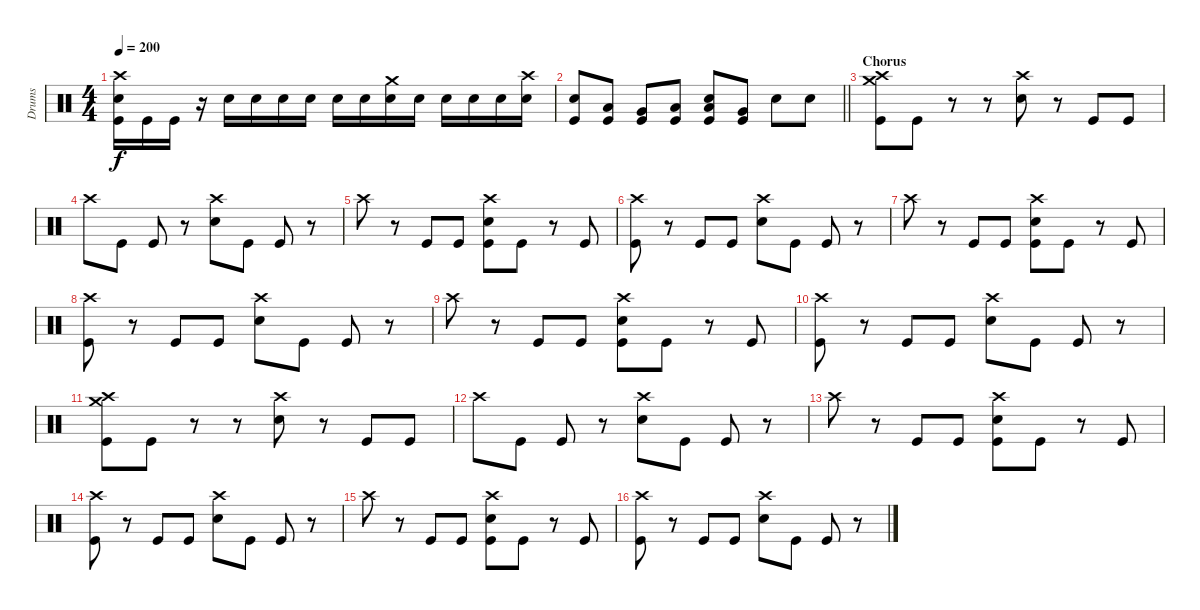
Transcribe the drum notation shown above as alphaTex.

\track ("Drums" "Drums") {instrument percussion}
\staff {score}
\articulation defaults
\ts (4 4)
\tempo 200
\clef neutral
\ks c
("Crash high (hit)" "Electric Snare (hit)" "Kick (hit)").16{dy f} "Kick (hit)".16 "Kick (hit)".16 r.16 "Electric Snare (hit)".16 "Electric Snare (hit)".16 "Electric Snare (hit)".16 "Electric Snare (hit)".16 "Electric Snare (hit)".16 "Electric Snare (hit)".16 ("Crash medium (hit)" "Electric Snare (hit)").16 "Electric Snare (hit)".16 "Electric Snare (hit)".16 "Electric Snare (hit)".16 "Electric Snare (hit)".16 ("Crash high (hit)" "Electric Snare (hit)").16 |
\barLineRight lightlight
("Electric Snare (hit)" "Kick (hit)").8 ("Low Tom (hit)" "Kick (hit)").8 ("Very Low Tom (hit)" "Kick (hit)").8 ("Low Floor Tom (hit)" "Kick (hit)").8 ("Low Tom (hit)" "Electric Snare (hit)" "Kick (hit)").8 ("Very Low Tom (hit)" "Kick (hit)").8 "Electric Snare (hit)".8 "Electric Snare (hit)".8 |
\section ("" "Chorus")
("Crash high (hit)" "Crash medium (hit)" "Kick (hit)").8 "Kick (hit)".8 r.8 r.8 ("Crash high (hit)" "Electric Snare (hit)").8 r.8 "Kick (hit)".8 "Kick (hit)".8 |
"Crash high (hit)".8 "Kick (hit)".8 "Kick (hit)".8 r.8 ("Crash high (hit)" "Electric Snare (hit)").8 "Kick (hit)".8 "Kick (hit)".8 r.8 |
"Crash high (hit)".8 r.8 "Kick (hit)".8 "Kick (hit)".8 ("Crash high (hit)" "Electric Snare (hit)" "Kick (hit)").8 "Kick (hit)".8 r.8 "Kick (hit)".8 |
("Crash high (hit)" "Kick (hit)").8 r.8 "Kick (hit)".8 "Kick (hit)".8 ("Crash high (hit)" "Electric Snare (hit)").8 "Kick (hit)".8 "Kick (hit)".8 r.8 |
"Crash high (hit)".8 r.8 "Kick (hit)".8 "Kick (hit)".8 ("Crash high (hit)" "Electric Snare (hit)" "Kick (hit)").8 "Kick (hit)".8 r.8 "Kick (hit)".8 |
("Crash high (hit)" "Kick (hit)").8 r.8 "Kick (hit)".8 "Kick (hit)".8 ("Crash high (hit)" "Electric Snare (hit)").8 "Kick (hit)".8 "Kick (hit)".8 r.8 |
"Crash high (hit)".8 r.8 "Kick (hit)".8 "Kick (hit)".8 ("Crash high (hit)" "Electric Snare (hit)" "Kick (hit)").8 "Kick (hit)".8 r.8 "Kick (hit)".8 |
("Crash high (hit)" "Kick (hit)").8 r.8 "Kick (hit)".8 "Kick (hit)".8 ("Crash high (hit)" "Electric Snare (hit)").8 "Kick (hit)".8 "Kick (hit)".8 r.8 |
("Crash high (hit)" "Crash medium (hit)" "Kick (hit)").8 "Kick (hit)".8 r.8 r.8 ("Crash high (hit)" "Electric Snare (hit)").8 r.8 "Kick (hit)".8 "Kick (hit)".8 |
"Crash high (hit)".8 "Kick (hit)".8 "Kick (hit)".8 r.8 ("Crash high (hit)" "Electric Snare (hit)").8 "Kick (hit)".8 "Kick (hit)".8 r.8 |
"Crash high (hit)".8 r.8 "Kick (hit)".8 "Kick (hit)".8 ("Crash high (hit)" "Electric Snare (hit)" "Kick (hit)").8 "Kick (hit)".8 r.8 "Kick (hit)".8 |
("Crash high (hit)" "Kick (hit)").8 r.8 "Kick (hit)".8 "Kick (hit)".8 ("Crash high (hit)" "Electric Snare (hit)").8 "Kick (hit)".8 "Kick (hit)".8 r.8 |
"Crash high (hit)".8 r.8 "Kick (hit)".8 "Kick (hit)".8 ("Crash high (hit)" "Electric Snare (hit)" "Kick (hit)").8 "Kick (hit)".8 r.8 "Kick (hit)".8 |
("Crash high (hit)" "Kick (hit)").8 r.8 "Kick (hit)".8 "Kick (hit)".8 ("Crash high (hit)" "Electric Snare (hit)").8 "Kick (hit)".8 "Kick (hit)".8 r.8
